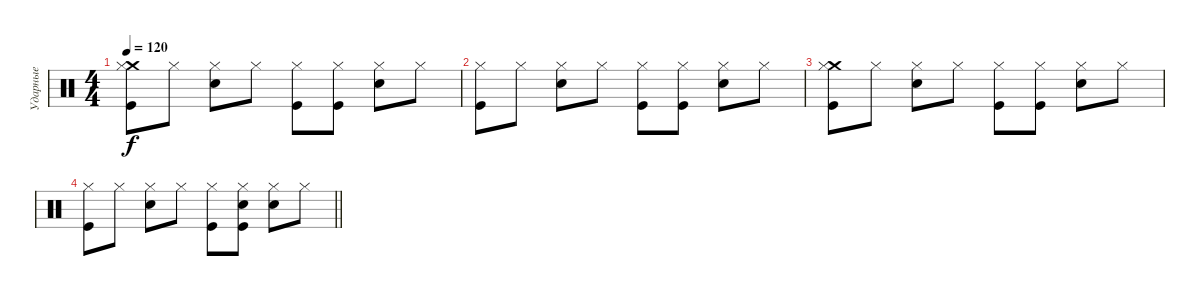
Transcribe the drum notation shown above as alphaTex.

\track ("Ударные" "Ударные") {instrument percussion}
\staff {score}
\articulation defaults
\ts (4 4)
\tempo 120
\clef neutral
\ks c
("Crash medium (hit)" "Hi-Hat (closed)" "Kick (hit)").8{dy f volume 0} "Hi-Hat (closed)".8 ("Snare (hit) 2" "Hi-Hat (closed)").8 "Hi-Hat (closed)".8 ("Kick (hit)" "Hi-Hat (closed)").8 ("Kick (hit)" "Hi-Hat (closed)").8 ("Snare (hit) 2" "Hi-Hat (closed)").8 "Hi-Hat (closed)".8 |
("Kick (hit)" "Hi-Hat (closed)").8 "Hi-Hat (closed)".8 ("Snare (hit) 2" "Hi-Hat (closed)").8 "Hi-Hat (closed)".8 ("Kick (hit)" "Hi-Hat (closed)").8 ("Kick (hit)" "Hi-Hat (closed)").8 ("Snare (hit) 2" "Hi-Hat (closed)").8 "Hi-Hat (closed)".8 |
("Crash medium (hit)" "Hi-Hat (closed)" "Kick (hit)").8 "Hi-Hat (closed)".8 ("Snare (hit) 2" "Hi-Hat (closed)").8 "Hi-Hat (closed)".8 ("Kick (hit)" "Hi-Hat (closed)").8 ("Kick (hit)" "Hi-Hat (closed)").8 ("Snare (hit) 2" "Hi-Hat (closed)").8 "Hi-Hat (closed)".8 |
\barLineRight lightlight
("Kick (hit)" "Hi-Hat (closed)").8 "Hi-Hat (closed)".8 ("Snare (hit) 2" "Hi-Hat (closed)").8 "Hi-Hat (closed)".8 ("Kick (hit)" "Hi-Hat (closed)").8 ("Kick (hit)" "Hi-Hat (closed)" "Snare (hit) 2").8 ("Snare (hit) 2" "Hi-Hat (closed)").8 "Hi-Hat (closed)".8
